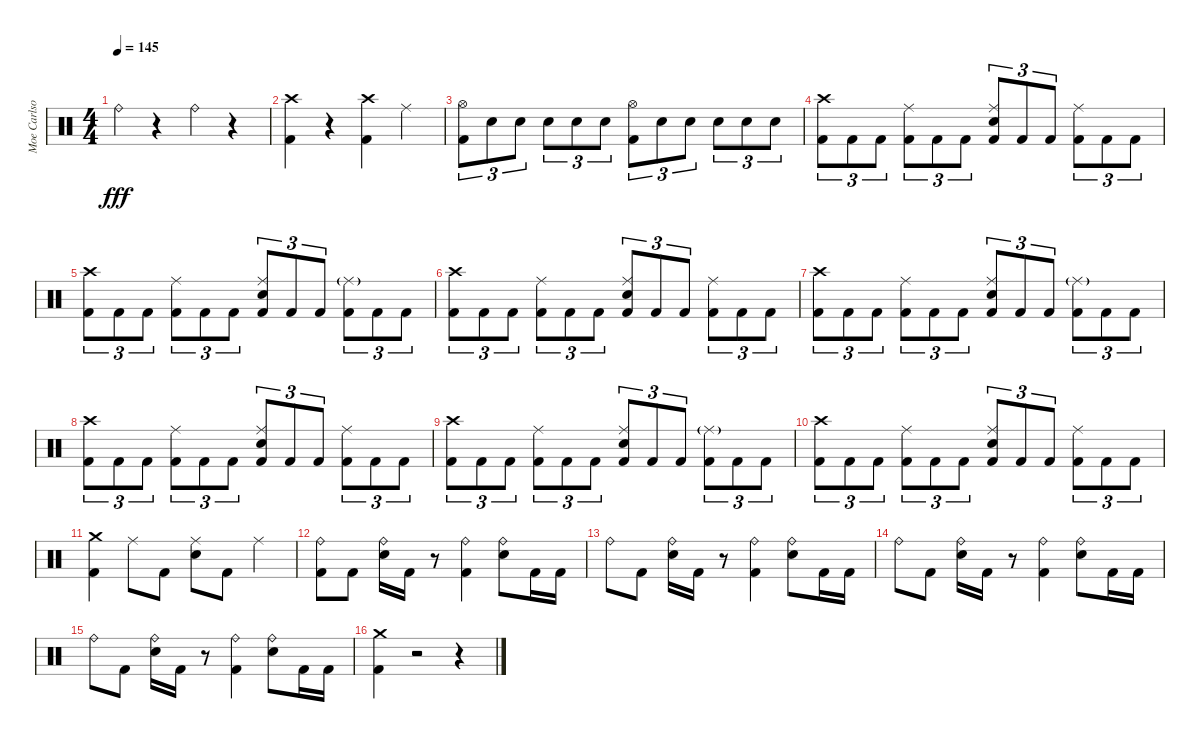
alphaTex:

\track ("Moe Carlson" "Moe Carlso") {instrument percussion}
\staff {score}
\articulation defaults
\ts (4 4)
\tempo 145
\clef neutral
\ks c "Ride (bell)".4{dy fff}
r.4 "Ride (bell)".4 r.4 |
("Crash high (hit)" "Kick (hit) 2").4 r.4 ("Crash high (hit)" "Kick (hit) 2").4 "Ride (middle)".4 |
("Hi-Hat (open)" "Kick (hit) 2").8{tu (3 2)} "Electric Snare (hit)".8{tu (3 2)} "Electric Snare (hit)".8{tu (3 2)} "Electric Snare (hit)".8{tu (3 2)} "Electric Snare (hit)".8{tu (3 2)} "Electric Snare (hit)".8{tu (3 2)} ("Hi-Hat (open)" "Kick (hit) 2").8{tu (3 2)} "Electric Snare (hit)".8{tu (3 2)} "Electric Snare (hit)".8{tu (3 2)} "Electric Snare (hit)".8{tu (3 2)} "Electric Snare (hit)".8{tu (3 2)} "Electric Snare (hit)".8{tu (3 2)} |
("Crash high (hit)" "Kick (hit) 2").8{tu (3 2)} "Kick (hit) 2".8{tu (3 2)} "Kick (hit) 2".8{tu (3 2)} ("Ride (middle)" "Kick (hit) 2").8{tu (3 2)} "Kick (hit) 2".8{tu (3 2)} "Kick (hit) 2".8{tu (3 2)} ("Ride (middle)" "Electric Snare (hit)" "Kick (hit) 2").8{tu (3 2)} "Kick (hit) 2".8{tu (3 2)} "Kick (hit) 2".8{tu (3 2)} ("Ride (middle)" "Kick (hit) 2").8{tu (3 2)} "Kick (hit) 2".8{tu (3 2)} "Kick (hit) 2".8{tu (3 2)} |
("Crash high (hit)" "Kick (hit) 2").8{tu (3 2)} "Kick (hit) 2".8{tu (3 2)} "Kick (hit) 2".8{tu (3 2)} ("Ride (middle)" "Kick (hit) 2").8{tu (3 2)} "Kick (hit) 2".8{tu (3 2)} "Kick (hit) 2".8{tu (3 2)} ("Ride (middle)" "Electric Snare (hit)" "Kick (hit) 2").8{tu (3 2)} "Kick (hit) 2".8{tu (3 2)} "Kick (hit) 2".8{tu (3 2)} ("Ride (middle)"{g} "Kick (hit) 2").8{tu (3 2)} "Kick (hit) 2".8{tu (3 2)} "Kick (hit) 2".8{tu (3 2)} |
("Crash high (hit)" "Kick (hit) 2").8{tu (3 2)} "Kick (hit) 2".8{tu (3 2)} "Kick (hit) 2".8{tu (3 2)} ("Ride (middle)" "Kick (hit) 2").8{tu (3 2)} "Kick (hit) 2".8{tu (3 2)} "Kick (hit) 2".8{tu (3 2)} ("Ride (middle)" "Electric Snare (hit)" "Kick (hit) 2").8{tu (3 2)} "Kick (hit) 2".8{tu (3 2)} "Kick (hit) 2".8{tu (3 2)} ("Ride (middle)" "Kick (hit) 2").8{tu (3 2)} "Kick (hit) 2".8{tu (3 2)} "Kick (hit) 2".8{tu (3 2)} |
("Crash high (hit)" "Kick (hit) 2").8{tu (3 2)} "Kick (hit) 2".8{tu (3 2)} "Kick (hit) 2".8{tu (3 2)} ("Ride (middle)" "Kick (hit) 2").8{tu (3 2)} "Kick (hit) 2".8{tu (3 2)} "Kick (hit) 2".8{tu (3 2)} ("Ride (middle)" "Electric Snare (hit)" "Kick (hit) 2").8{tu (3 2)} "Kick (hit) 2".8{tu (3 2)} "Kick (hit) 2".8{tu (3 2)} ("Ride (middle)"{g} "Kick (hit) 2").8{tu (3 2)} "Kick (hit) 2".8{tu (3 2)} "Kick (hit) 2".8{tu (3 2)} |
("Crash high (hit)" "Kick (hit) 2").8{tu (3 2)} "Kick (hit) 2".8{tu (3 2)} "Kick (hit) 2".8{tu (3 2)} ("Ride (middle)" "Kick (hit) 2").8{tu (3 2)} "Kick (hit) 2".8{tu (3 2)} "Kick (hit) 2".8{tu (3 2)} ("Ride (middle)" "Electric Snare (hit)" "Kick (hit) 2").8{tu (3 2)} "Kick (hit) 2".8{tu (3 2)} "Kick (hit) 2".8{tu (3 2)} ("Ride (middle)" "Kick (hit) 2").8{tu (3 2)} "Kick (hit) 2".8{tu (3 2)} "Kick (hit) 2".8{tu (3 2)} |
("Crash high (hit)" "Kick (hit) 2").8{tu (3 2)} "Kick (hit) 2".8{tu (3 2)} "Kick (hit) 2".8{tu (3 2)} ("Ride (middle)" "Kick (hit) 2").8{tu (3 2)} "Kick (hit) 2".8{tu (3 2)} "Kick (hit) 2".8{tu (3 2)} ("Ride (middle)" "Electric Snare (hit)" "Kick (hit) 2").8{tu (3 2)} "Kick (hit) 2".8{tu (3 2)} "Kick (hit) 2".8{tu (3 2)} ("Ride (middle)"{g} "Kick (hit) 2").8{tu (3 2)} "Kick (hit) 2".8{tu (3 2)} "Kick (hit) 2".8{tu (3 2)} |
("Crash high (hit)" "Kick (hit) 2").8{tu (3 2)} "Kick (hit) 2".8{tu (3 2)} "Kick (hit) 2".8{tu (3 2)} ("Ride (middle)" "Kick (hit) 2").8{tu (3 2)} "Kick (hit) 2".8{tu (3 2)} "Kick (hit) 2".8{tu (3 2)} ("Ride (middle)" "Electric Snare (hit)" "Kick (hit) 2").8{tu (3 2)} "Kick (hit) 2".8{tu (3 2)} "Kick (hit) 2".8{tu (3 2)} ("Ride (middle)" "Kick (hit) 2").8{tu (3 2)} "Kick (hit) 2".8{tu (3 2)} "Kick (hit) 2".8{tu (3 2)} |
("Crash medium (hit)" "Kick (hit) 2").4 "Ride (middle)".8 "Kick (hit) 2".8 ("Ride (middle)" "Electric Snare (hit)").8 "Kick (hit) 2".8 "Ride (middle)".4 |
("Ride (bell)" "Kick (hit) 2").8 "Kick (hit) 2".8 ("Ride (bell)" "Electric Snare (hit)").16 "Kick (hit) 2".16 r.8 ("Ride (bell)" "Kick (hit) 2").4 ("Ride (bell)" "Electric Snare (hit)").8 "Kick (hit) 2".16 "Kick (hit) 2".16 |
"Ride (bell)".8 "Kick (hit) 2".8 ("Ride (bell)" "Electric Snare (hit)").16 "Kick (hit) 2".16 r.8 ("Ride (bell)" "Kick (hit) 2").4 ("Ride (bell)" "Electric Snare (hit)").8 "Kick (hit) 2".16 "Kick (hit) 2".16 |
"Ride (bell)".8 "Kick (hit) 2".8 ("Ride (bell)" "Electric Snare (hit)").16 "Kick (hit) 2".16 r.8 ("Ride (bell)" "Kick (hit) 2").4 ("Ride (bell)" "Electric Snare (hit)").8 "Kick (hit) 2".16 "Kick (hit) 2".16 |
"Ride (bell)".8 "Kick (hit) 2".8 ("Ride (bell)" "Electric Snare (hit)").16 "Kick (hit) 2".16 r.8 ("Ride (bell)" "Kick (hit) 2").4 ("Ride (bell)" "Electric Snare (hit)").8 "Kick (hit) 2".16 "Kick (hit) 2".16 |
("Crash medium (hit)" "Kick (hit) 2").4 r.2 r.4
